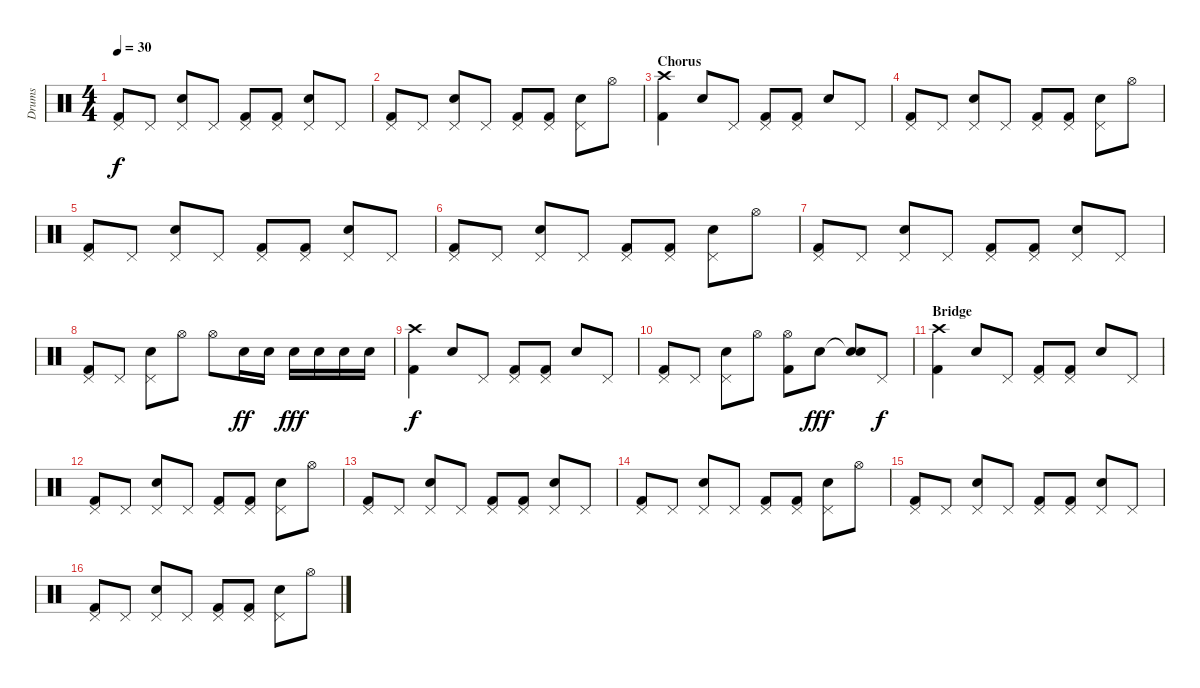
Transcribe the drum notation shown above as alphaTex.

\track ("Drums" "Drums") {instrument percussion}
\staff {score}
\articulation defaults
\ts (4 4)
\tempo 30
\clef neutral
\ks c
("Pedal Hi-Hat (hit)" "Kick (hit) 2").8{dy f} "Pedal Hi-Hat (hit)".8 ("Pedal Hi-Hat (hit)" "Snare (hit) 2").8 "Pedal Hi-Hat (hit)".8 ("Pedal Hi-Hat (hit)" "Kick (hit) 2").8 ("Pedal Hi-Hat (hit)" "Kick (hit) 2").8 ("Pedal Hi-Hat (hit)" "Snare (hit) 2").8 "Pedal Hi-Hat (hit)".8 |
("Pedal Hi-Hat (hit)" "Kick (hit) 2").8 "Pedal Hi-Hat (hit)".8 ("Pedal Hi-Hat (hit)" "Snare (hit) 2").8 "Pedal Hi-Hat (hit)".8 ("Pedal Hi-Hat (hit)" "Kick (hit) 2").8 ("Pedal Hi-Hat (hit)" "Kick (hit) 2").8 ("Pedal Hi-Hat (hit)" "Snare (hit) 2").8 "Hi-Hat (open)".8 |
\section ("" "Chorus")
("Crash high (hit)" "Kick (hit) 2").4 "Snare (hit) 2".8 "Pedal Hi-Hat (hit)".8 ("Pedal Hi-Hat (hit)" "Kick (hit) 2").8 ("Pedal Hi-Hat (hit)" "Kick (hit) 2").8 "Snare (hit) 2".8 "Pedal Hi-Hat (hit)".8 |
("Pedal Hi-Hat (hit)" "Kick (hit) 2").8 "Pedal Hi-Hat (hit)".8 ("Pedal Hi-Hat (hit)" "Snare (hit) 2").8 "Pedal Hi-Hat (hit)".8 ("Pedal Hi-Hat (hit)" "Kick (hit) 2").8 ("Pedal Hi-Hat (hit)" "Kick (hit) 2").8 ("Pedal Hi-Hat (hit)" "Snare (hit) 2").8 "Hi-Hat (open)".8 |
("Pedal Hi-Hat (hit)" "Kick (hit) 2").8 "Pedal Hi-Hat (hit)".8 ("Pedal Hi-Hat (hit)" "Snare (hit) 2").8 "Pedal Hi-Hat (hit)".8 ("Pedal Hi-Hat (hit)" "Kick (hit) 2").8 ("Pedal Hi-Hat (hit)" "Kick (hit) 2").8 ("Pedal Hi-Hat (hit)" "Snare (hit) 2").8 "Pedal Hi-Hat (hit)".8 |
("Pedal Hi-Hat (hit)" "Kick (hit) 2").8 "Pedal Hi-Hat (hit)".8 ("Pedal Hi-Hat (hit)" "Snare (hit) 2").8 "Pedal Hi-Hat (hit)".8 ("Pedal Hi-Hat (hit)" "Kick (hit) 2").8 ("Pedal Hi-Hat (hit)" "Kick (hit) 2").8 ("Pedal Hi-Hat (hit)" "Snare (hit) 2").8 "Hi-Hat (open)".8 |
("Pedal Hi-Hat (hit)" "Kick (hit) 2").8 "Pedal Hi-Hat (hit)".8 ("Pedal Hi-Hat (hit)" "Snare (hit) 2").8 "Pedal Hi-Hat (hit)".8 ("Pedal Hi-Hat (hit)" "Kick (hit) 2").8 ("Pedal Hi-Hat (hit)" "Kick (hit) 2").8 ("Pedal Hi-Hat (hit)" "Snare (hit) 2").8 "Pedal Hi-Hat (hit)".8 |
("Pedal Hi-Hat (hit)" "Kick (hit) 2").8 "Pedal Hi-Hat (hit)".8 ("Pedal Hi-Hat (hit)" "Snare (hit) 2").8 "Hi-Hat (open)".8 "Hi-Hat (open)".8 "Snare (hit) 2".16{dy ff} "Snare (hit) 2".16 "Snare (hit) 2".16{dy fff} "Snare (hit) 2".16 "Snare (hit) 2".16 "Snare (hit) 2".16 |
("Crash high (hit)" "Kick (hit) 2").4{dy f} "Snare (hit) 2".8 "Pedal Hi-Hat (hit)".8 ("Pedal Hi-Hat (hit)" "Kick (hit) 2").8 ("Pedal Hi-Hat (hit)" "Kick (hit) 2").8 "Snare (hit) 2".8 "Pedal Hi-Hat (hit)".8 |
("Pedal Hi-Hat (hit)" "Kick (hit) 2").8 "Pedal Hi-Hat (hit)".8 ("Pedal Hi-Hat (hit)" "Snare (hit) 2").8 "Hi-Hat (open)".8 ("Hi-Hat (open)" "Kick (hit) 2").8 "Snare (hit) 2".8{dy fff} ("Snare (hit)"{t} "Snare (hit) 2").8 "Pedal Hi-Hat (hit)".8{dy f} |
\section ("" "Bridge")
("Crash high (hit)" "Kick (hit) 2").4 "Snare (hit) 2".8 "Pedal Hi-Hat (hit)".8 ("Pedal Hi-Hat (hit)" "Kick (hit) 2").8 ("Pedal Hi-Hat (hit)" "Kick (hit) 2").8 "Snare (hit) 2".8 "Pedal Hi-Hat (hit)".8 |
("Pedal Hi-Hat (hit)" "Kick (hit) 2").8 "Pedal Hi-Hat (hit)".8 ("Pedal Hi-Hat (hit)" "Snare (hit) 2").8 "Pedal Hi-Hat (hit)".8 ("Pedal Hi-Hat (hit)" "Kick (hit) 2").8 ("Pedal Hi-Hat (hit)" "Kick (hit) 2").8 ("Pedal Hi-Hat (hit)" "Snare (hit) 2").8 "Hi-Hat (open)".8 |
("Pedal Hi-Hat (hit)" "Kick (hit) 2").8 "Pedal Hi-Hat (hit)".8 ("Pedal Hi-Hat (hit)" "Snare (hit) 2").8 "Pedal Hi-Hat (hit)".8 ("Pedal Hi-Hat (hit)" "Kick (hit) 2").8 ("Pedal Hi-Hat (hit)" "Kick (hit) 2").8 ("Pedal Hi-Hat (hit)" "Snare (hit) 2").8 "Pedal Hi-Hat (hit)".8 |
("Pedal Hi-Hat (hit)" "Kick (hit) 2").8 "Pedal Hi-Hat (hit)".8 ("Pedal Hi-Hat (hit)" "Snare (hit) 2").8 "Pedal Hi-Hat (hit)".8 ("Pedal Hi-Hat (hit)" "Kick (hit) 2").8 ("Pedal Hi-Hat (hit)" "Kick (hit) 2").8 ("Pedal Hi-Hat (hit)" "Snare (hit) 2").8 "Hi-Hat (open)".8 |
("Pedal Hi-Hat (hit)" "Kick (hit) 2").8 "Pedal Hi-Hat (hit)".8 ("Pedal Hi-Hat (hit)" "Snare (hit) 2").8 "Pedal Hi-Hat (hit)".8 ("Pedal Hi-Hat (hit)" "Kick (hit) 2").8 ("Pedal Hi-Hat (hit)" "Kick (hit) 2").8 ("Pedal Hi-Hat (hit)" "Snare (hit) 2").8 "Pedal Hi-Hat (hit)".8 |
("Pedal Hi-Hat (hit)" "Kick (hit) 2").8 "Pedal Hi-Hat (hit)".8 ("Pedal Hi-Hat (hit)" "Snare (hit) 2").8 "Pedal Hi-Hat (hit)".8 ("Pedal Hi-Hat (hit)" "Kick (hit) 2").8 ("Pedal Hi-Hat (hit)" "Kick (hit) 2").8 ("Pedal Hi-Hat (hit)" "Snare (hit) 2").8 "Hi-Hat (open)".8
